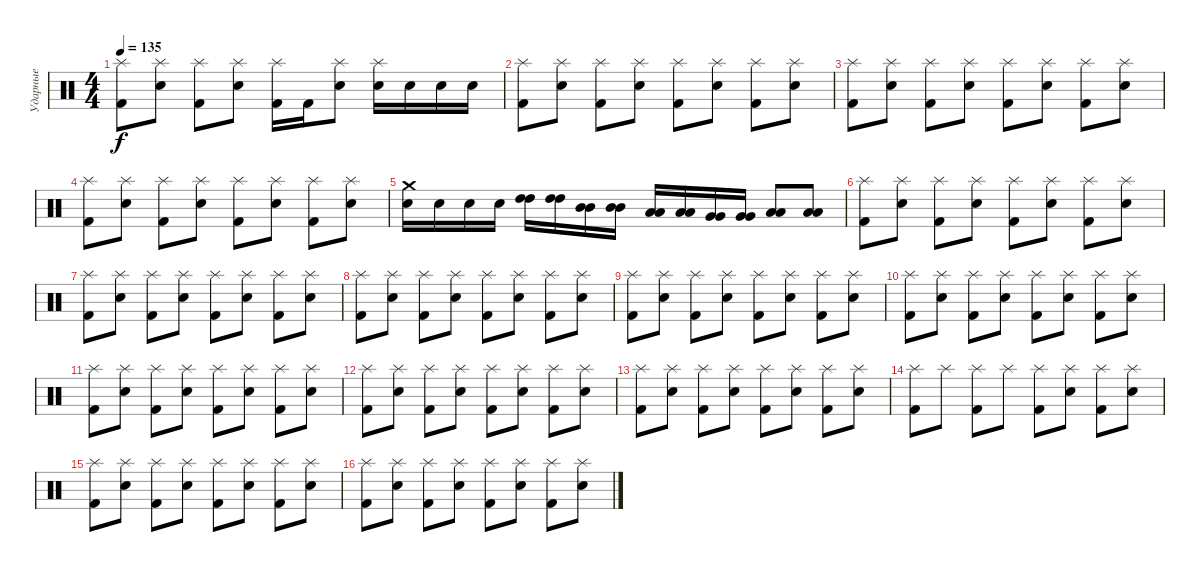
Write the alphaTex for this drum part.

\track ("Ударные" "Ударные") {instrument percussion}
\staff {score}
\articulation defaults
\ts (4 4)
\tempo 135
\clef neutral
\ks c
("Splash (hit)" "Kick (hit) 2").8{dy f} ("Splash (hit)" "Snare (hit) 2").8 ("Splash (hit)" "Kick (hit) 2").8 ("Splash (hit)" "Snare (hit) 2").8 ("Splash (hit)" "Kick (hit) 2").16 "Kick (hit) 2".16 ("Splash (hit)" "Snare (hit) 2").8 ("Splash (hit)" "Snare (hit) 2").16 "Snare (hit) 2".16 "Snare (hit) 2".16 "Snare (hit) 2".16 |
("Splash (hit)" "Kick (hit) 2").8 ("Splash (hit)" "Snare (hit) 2").8 ("Splash (hit)" "Kick (hit) 2").8 ("Splash (hit)" "Snare (hit) 2").8 ("Splash (hit)" "Kick (hit) 2").8 ("Splash (hit)" "Snare (hit) 2").8 ("Splash (hit)" "Kick (hit) 2").8 ("Splash (hit)" "Snare (hit) 2").8 |
("Splash (hit)" "Kick (hit) 2").8 ("Splash (hit)" "Snare (hit) 2").8 ("Splash (hit)" "Kick (hit) 2").8 ("Splash (hit)" "Snare (hit) 2").8 ("Splash (hit)" "Kick (hit) 2").8 ("Splash (hit)" "Snare (hit) 2").8 ("Splash (hit)" "Kick (hit) 2").8 ("Splash (hit)" "Snare (hit) 2").8 |
("Splash (hit)" "Kick (hit) 2").8 ("Splash (hit)" "Snare (hit) 2").8 ("Splash (hit)" "Kick (hit) 2").8 ("Splash (hit)" "Snare (hit) 2").8 ("Splash (hit)" "Kick (hit) 2").8 ("Splash (hit)" "Snare (hit) 2").8 ("Splash (hit)" "Kick (hit) 2").8 ("Splash (hit)" "Snare (hit) 2").8 |
("Crash medium (hit)" "Snare (hit) 2").16 "Snare (hit) 2".16 "Snare (hit) 2".16 "Snare (hit) 2".16 ("High Tom (hit)" "High Tom (hit)").16 ("High Tom (hit)" "High Tom (hit)").16 ("Mid Tom (hit)" "Mid Tom (hit)").16 ("Mid Tom (hit)" "Mid Tom (hit)").16 ("Low Tom (hit)" "Low Tom (hit)").16 ("Low Tom (hit)" "Low Tom (hit)").16 ("Very Low Tom (hit)" "Very Low Tom (hit)").16 ("Very Low Tom (hit)" "Very Low Tom (hit)").16 ("Low Floor Tom (hit)" "Low Floor Tom (hit)").8 ("Low Floor Tom (hit)" "Low Floor Tom (hit)").8 |
("Splash (hit)" "Kick (hit) 2").8 ("Splash (hit)" "Snare (hit) 2").8 ("Splash (hit)" "Kick (hit) 2").8 ("Splash (hit)" "Snare (hit) 2").8 ("Splash (hit)" "Kick (hit) 2").8 ("Splash (hit)" "Snare (hit) 2").8 ("Splash (hit)" "Kick (hit) 2").8 ("Splash (hit)" "Snare (hit) 2").8 |
("Splash (hit)" "Kick (hit) 2").8 ("Splash (hit)" "Snare (hit) 2").8 ("Splash (hit)" "Kick (hit) 2").8 ("Splash (hit)" "Snare (hit) 2").8 ("Splash (hit)" "Kick (hit) 2").8 ("Splash (hit)" "Snare (hit) 2").8 ("Splash (hit)" "Kick (hit) 2").8 ("Splash (hit)" "Snare (hit) 2").8 |
("Splash (hit)" "Kick (hit) 2").8 ("Splash (hit)" "Snare (hit) 2").8 ("Splash (hit)" "Kick (hit) 2").8 ("Splash (hit)" "Snare (hit) 2").8 ("Splash (hit)" "Kick (hit) 2").8 ("Splash (hit)" "Snare (hit) 2").8 ("Splash (hit)" "Kick (hit) 2").8 ("Splash (hit)" "Snare (hit) 2").8 |
("Splash (hit)" "Kick (hit) 2").8 ("Splash (hit)" "Snare (hit) 2").8 ("Splash (hit)" "Kick (hit) 2").8 ("Splash (hit)" "Snare (hit) 2").8 ("Splash (hit)" "Kick (hit) 2").8 ("Splash (hit)" "Snare (hit) 2").8 ("Splash (hit)" "Kick (hit) 2").8 ("Splash (hit)" "Snare (hit) 2").8 |
("Splash (hit)" "Kick (hit) 2").8 ("Splash (hit)" "Snare (hit) 2").8 ("Splash (hit)" "Kick (hit) 2").8 ("Splash (hit)" "Snare (hit) 2").8 ("Splash (hit)" "Kick (hit) 2").8 ("Splash (hit)" "Snare (hit) 2").8 ("Splash (hit)" "Kick (hit) 2").8 ("Splash (hit)" "Snare (hit) 2").8 |
("Splash (hit)" "Kick (hit) 2").8 ("Splash (hit)" "Snare (hit) 2").8 ("Splash (hit)" "Kick (hit) 2").8 ("Splash (hit)" "Snare (hit) 2").8 ("Splash (hit)" "Kick (hit) 2").8 ("Splash (hit)" "Snare (hit) 2").8 ("Splash (hit)" "Kick (hit) 2").8 ("Splash (hit)" "Snare (hit) 2").8 |
("Splash (hit)" "Kick (hit) 2").8 ("Splash (hit)" "Snare (hit) 2").8 ("Splash (hit)" "Kick (hit) 2").8 ("Splash (hit)" "Snare (hit) 2").8 ("Splash (hit)" "Kick (hit) 2").8 ("Splash (hit)" "Snare (hit) 2").8 ("Splash (hit)" "Kick (hit) 2").8 ("Splash (hit)" "Snare (hit) 2").8 |
("Splash (hit)" "Kick (hit) 2").8 ("Splash (hit)" "Snare (hit) 2").8 ("Splash (hit)" "Kick (hit) 2").8 ("Splash (hit)" "Snare (hit) 2").8 ("Splash (hit)" "Kick (hit) 2").8 ("Splash (hit)" "Snare (hit) 2").8 ("Splash (hit)" "Kick (hit) 2").8 ("Splash (hit)" "Snare (hit) 2").8 |
("Splash (hit)" "Kick (hit) 2").8 "Splash (hit)".8 ("Splash (hit)" "Kick (hit) 2").8 "Splash (hit)".8 ("Splash (hit)" "Kick (hit) 2").8 ("Splash (hit)" "Snare (hit) 2").8 ("Splash (hit)" "Kick (hit) 2").8 ("Splash (hit)" "Snare (hit) 2").8 |
("Splash (hit)" "Kick (hit) 2").8 ("Splash (hit)" "Snare (hit) 2").8 ("Splash (hit)" "Kick (hit) 2").8 ("Splash (hit)" "Snare (hit) 2").8 ("Splash (hit)" "Kick (hit) 2").8 ("Splash (hit)" "Snare (hit) 2").8 ("Splash (hit)" "Kick (hit) 2").8 ("Splash (hit)" "Snare (hit) 2").8 |
("Splash (hit)" "Kick (hit) 2").8 ("Splash (hit)" "Snare (hit) 2").8 ("Splash (hit)" "Kick (hit) 2").8 ("Splash (hit)" "Snare (hit) 2").8 ("Splash (hit)" "Kick (hit) 2").8 ("Splash (hit)" "Snare (hit) 2").8 ("Splash (hit)" "Kick (hit) 2").8 ("Splash (hit)" "Snare (hit) 2").8
